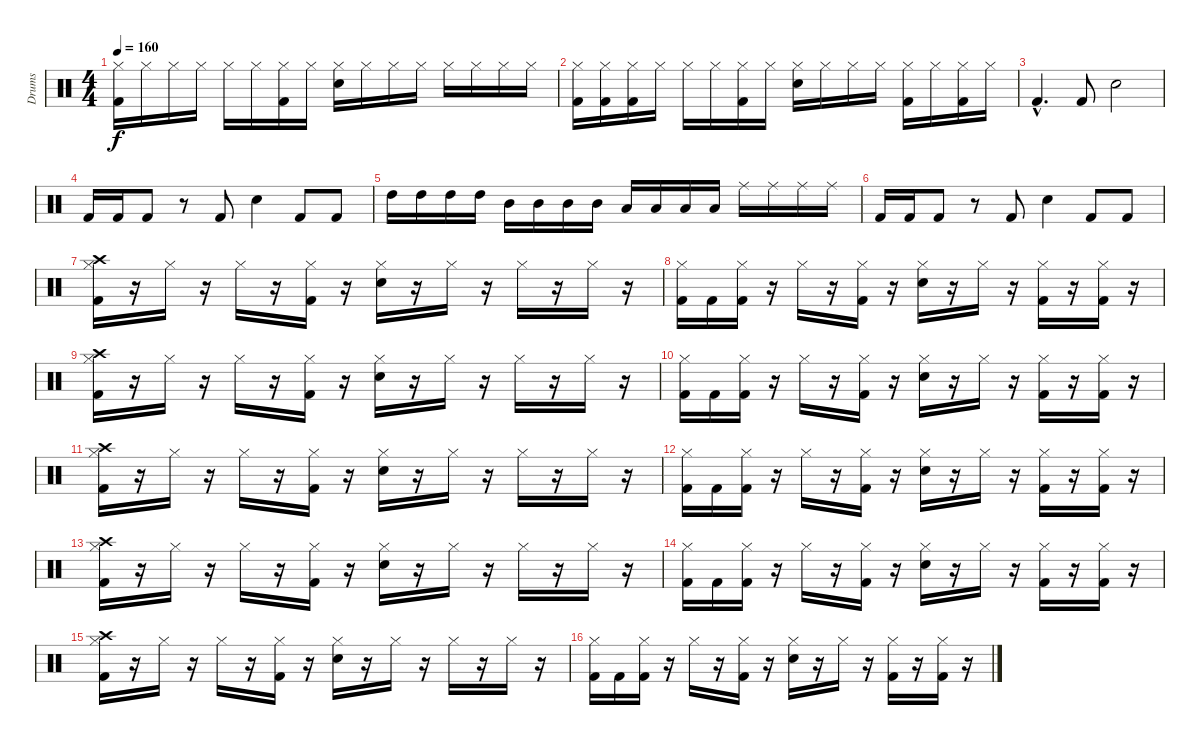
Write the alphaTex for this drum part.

\track ("Drums" "Drums") {instrument percussion}
\staff {score}
\articulation defaults
\ts (4 4)
\tempo 160
\clef neutral
\ks c
("Hi-Hat (closed)" "Kick (hit) 2").16{dy f} "Hi-Hat (closed)".16 "Hi-Hat (closed)".16 "Hi-Hat (closed)".16 "Hi-Hat (closed)".16 "Hi-Hat (closed)".16 ("Hi-Hat (closed)" "Kick (hit) 2").16 "Hi-Hat (closed)".16 ("Hi-Hat (closed)" "Electric Snare (hit)").16 "Hi-Hat (closed)".16 "Hi-Hat (closed)".16 "Hi-Hat (closed)".16 "Hi-Hat (closed)".16 "Hi-Hat (closed)".16 "Hi-Hat (closed)".16 "Hi-Hat (closed)".16 |
("Hi-Hat (closed)" "Kick (hit) 2").16 ("Hi-Hat (closed)" "Kick (hit) 2").16 ("Hi-Hat (closed)" "Kick (hit) 2").16 "Hi-Hat (closed)".16 "Hi-Hat (closed)".16 "Hi-Hat (closed)".16 ("Hi-Hat (closed)" "Kick (hit) 2").16 "Hi-Hat (closed)".16 ("Hi-Hat (closed)" "Electric Snare (hit)").16 "Hi-Hat (closed)".16 "Hi-Hat (closed)".16 "Hi-Hat (closed)".16 ("Hi-Hat (closed)" "Kick (hit) 2").16 "Hi-Hat (closed)".16 ("Hi-Hat (closed)" "Kick (hit) 2").16 "Hi-Hat (closed)".16 |
"Kick (hit) 2"{hac}.4{d} "Kick (hit) 2".8 "Electric Snare (hit)".2 |
"Kick (hit) 2".16 "Kick (hit) 2".16 "Kick (hit) 2".8 r.8 "Kick (hit) 2".8 "Electric Snare (hit)".4 "Kick (hit) 2".8 "Kick (hit) 2".8 |
"High Tom (hit)".16 "High Tom (hit)".16 "High Tom (hit)".16 "High Tom (hit)".16 "Mid Tom (hit)".16 "Mid Tom (hit)".16 "Mid Tom (hit)".16 "Mid Tom (hit)".16 "Low Tom (hit)".16 "Low Tom (hit)".16 "Low Tom (hit)".16 "Low Tom (hit)".16 "Ride (middle)".16 "Ride (middle)".16 "Ride (middle)".16 "Ride (middle)".16 |
"Kick (hit) 2".16 "Kick (hit) 2".16 "Kick (hit) 2".8 r.8 "Kick (hit) 2".8 "Electric Snare (hit)".4 "Kick (hit) 2".8 "Kick (hit) 2".8 |
\section ("" " ")
("Hi-Hat (closed)" "Crash high (hit)" "Kick (hit) 2").16 r.16 "Hi-Hat (closed)".16 r.16 "Hi-Hat (closed)".16 r.16 ("Hi-Hat (closed)" "Kick (hit) 2").16 r.16 ("Hi-Hat (closed)" "Electric Snare (hit)").16 r.16 "Hi-Hat (closed)".16 r.16 "Hi-Hat (closed)".16 r.16 "Hi-Hat (closed)".16 r.16 |
("Hi-Hat (closed)" "Kick (hit) 2").16 "Kick (hit) 2".16 ("Hi-Hat (closed)" "Kick (hit) 2").16 r.16 "Hi-Hat (closed)".16 r.16 ("Hi-Hat (closed)" "Kick (hit) 2").16 r.16 ("Hi-Hat (closed)" "Electric Snare (hit)").16 r.16 "Hi-Hat (closed)".16 r.16 ("Hi-Hat (closed)" "Kick (hit) 2").16 r.16 ("Hi-Hat (closed)" "Kick (hit) 2").16 r.16 |
("Hi-Hat (closed)" "Crash high (hit)" "Kick (hit) 2").16 r.16 "Hi-Hat (closed)".16 r.16 "Hi-Hat (closed)".16 r.16 ("Hi-Hat (closed)" "Kick (hit) 2").16 r.16 ("Hi-Hat (closed)" "Electric Snare (hit)").16 r.16 "Hi-Hat (closed)".16 r.16 "Hi-Hat (closed)".16 r.16 "Hi-Hat (closed)".16 r.16 |
("Hi-Hat (closed)" "Kick (hit) 2").16 "Kick (hit) 2".16 ("Hi-Hat (closed)" "Kick (hit) 2").16 r.16 "Hi-Hat (closed)".16 r.16 ("Hi-Hat (closed)" "Kick (hit) 2").16 r.16 ("Hi-Hat (closed)" "Electric Snare (hit)").16 r.16 "Hi-Hat (closed)".16 r.16 ("Hi-Hat (closed)" "Kick (hit) 2").16 r.16 ("Hi-Hat (closed)" "Kick (hit) 2").16 r.16 |
("Hi-Hat (closed)" "Crash high (hit)" "Kick (hit) 2").16 r.16 "Hi-Hat (closed)".16 r.16 "Hi-Hat (closed)".16 r.16 ("Hi-Hat (closed)" "Kick (hit) 2").16 r.16 ("Hi-Hat (closed)" "Electric Snare (hit)").16 r.16 "Hi-Hat (closed)".16 r.16 "Hi-Hat (closed)".16 r.16 "Hi-Hat (closed)".16 r.16 |
("Hi-Hat (closed)" "Kick (hit) 2").16 "Kick (hit) 2".16 ("Hi-Hat (closed)" "Kick (hit) 2").16 r.16 "Hi-Hat (closed)".16 r.16 ("Hi-Hat (closed)" "Kick (hit) 2").16 r.16 ("Hi-Hat (closed)" "Electric Snare (hit)").16 r.16 "Hi-Hat (closed)".16 r.16 ("Hi-Hat (closed)" "Kick (hit) 2").16 r.16 ("Hi-Hat (closed)" "Kick (hit) 2").16 r.16 |
("Hi-Hat (closed)" "Crash high (hit)" "Kick (hit) 2").16 r.16 "Hi-Hat (closed)".16 r.16 "Hi-Hat (closed)".16 r.16 ("Hi-Hat (closed)" "Kick (hit) 2").16 r.16 ("Hi-Hat (closed)" "Electric Snare (hit)").16 r.16 "Hi-Hat (closed)".16 r.16 "Hi-Hat (closed)".16 r.16 "Hi-Hat (closed)".16 r.16 |
("Hi-Hat (closed)" "Kick (hit) 2").16 "Kick (hit) 2".16 ("Hi-Hat (closed)" "Kick (hit) 2").16 r.16 "Hi-Hat (closed)".16 r.16 ("Hi-Hat (closed)" "Kick (hit) 2").16 r.16 ("Hi-Hat (closed)" "Electric Snare (hit)").16 r.16 "Hi-Hat (closed)".16 r.16 ("Hi-Hat (closed)" "Kick (hit) 2").16 r.16 ("Hi-Hat (closed)" "Kick (hit) 2").16 r.16 |
("Hi-Hat (closed)" "Crash high (hit)" "Kick (hit) 2").16 r.16 "Hi-Hat (closed)".16 r.16 "Hi-Hat (closed)".16 r.16 ("Hi-Hat (closed)" "Kick (hit) 2").16 r.16 ("Hi-Hat (closed)" "Electric Snare (hit)").16 r.16 "Hi-Hat (closed)".16 r.16 "Hi-Hat (closed)".16 r.16 "Hi-Hat (closed)".16 r.16 |
("Hi-Hat (closed)" "Kick (hit) 2").16 "Kick (hit) 2".16 ("Hi-Hat (closed)" "Kick (hit) 2").16 r.16 "Hi-Hat (closed)".16 r.16 ("Hi-Hat (closed)" "Kick (hit) 2").16 r.16 ("Hi-Hat (closed)" "Electric Snare (hit)").16 r.16 "Hi-Hat (closed)".16 r.16 ("Hi-Hat (closed)" "Kick (hit) 2").16 r.16 ("Hi-Hat (closed)" "Kick (hit) 2").16 r.16
